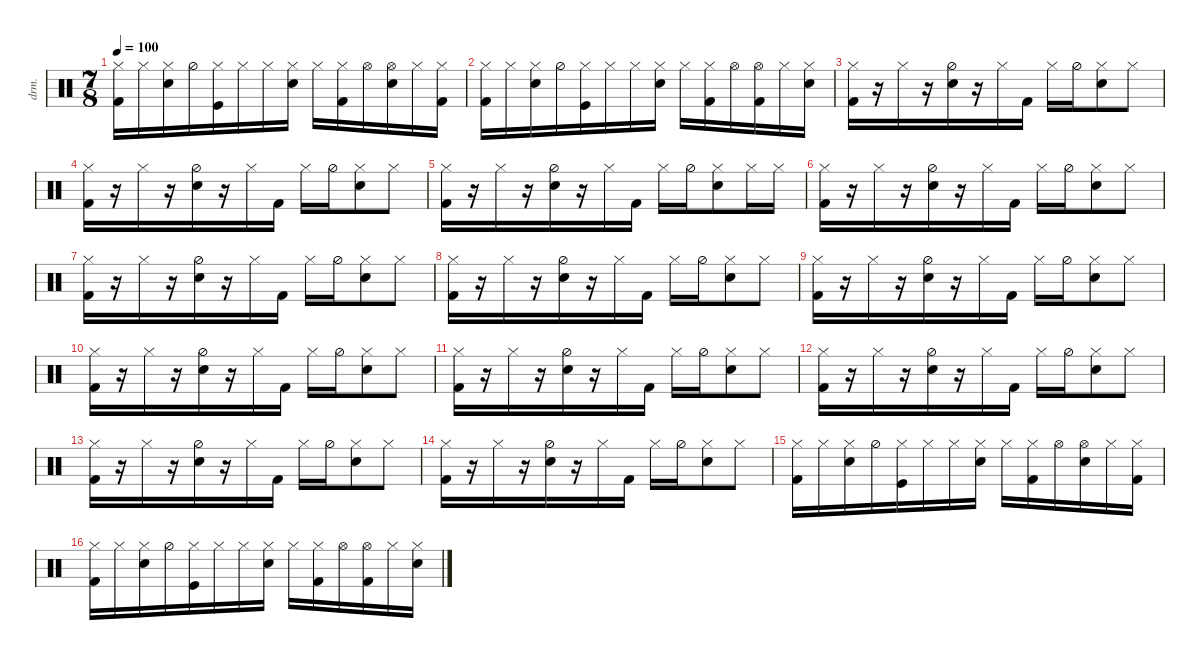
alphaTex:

\defaultSystemsLayout 4
\hideDynamics
\bracketExtendMode nobrackets
\otherSystemsTrackNameOrientation horizontal
\track ("Drumkit" "drm.") {instrument percussion}
\staff {score}
\articulation defaults
\ts (7 8)
\tempo 100
\clef neutral
\ks c
("Hi-Hat (closed)" "Kick (hit) 2").16{dy mf beam Down} "Hi-Hat (closed)".16{beam Down} ("Hi-Hat (closed)" "Snare (hit) 2").16{beam Down} "Hi-Hat (half)".16{beam Down} ("Hi-Hat (closed)" "Kick (hit)").16{beam Down} "Hi-Hat (closed)".16{beam Down} "Hi-Hat (closed)".16{beam Down} ("Hi-Hat (closed)" "Snare (hit) 2").16{beam Down} "Hi-Hat (closed)".16{beam Down} ("Hi-Hat (closed)" "Kick (hit) 2").16{beam Down} "Hi-Hat (open)".16{beam Down} ("Hi-Hat (open)" "Snare (hit) 2").16{beam Down} "Hi-Hat (closed)".16{beam Down} ("Hi-Hat (closed)" "Kick (hit) 2").16{beam Down} |
("Hi-Hat (closed)" "Kick (hit) 2").16{beam Down} "Hi-Hat (closed)".16{beam Down} ("Hi-Hat (closed)" "Snare (hit) 2").16{beam Down} "Hi-Hat (half)".16{beam Down} ("Hi-Hat (closed)" "Kick (hit)").16{beam Down} "Hi-Hat (closed)".16{beam Down} "Hi-Hat (closed)".16{beam Down} ("Hi-Hat (closed)" "Snare (hit) 2").16{beam Down} "Hi-Hat (closed)".16{beam Down} ("Hi-Hat (closed)" "Kick (hit) 2").16{beam Down} "Hi-Hat (open)".16{beam Down} ("Hi-Hat (open)" "Kick (hit) 2").16{beam Down} "Hi-Hat (closed)".16{beam Down} ("Hi-Hat (closed)" "Snare (hit) 2").16{beam Down} |
("Hi-Hat (closed)" "Kick (hit) 2").16{beam Down} r.16{beam Down} "Hi-Hat (closed)".16{beam Down} r.16{beam Down} ("Hi-Hat (half)" "Snare (hit) 2").16{beam Down} r.16{beam Down} "Hi-Hat (closed)".16{beam Down} "Kick (hit) 2".16{beam Down} "Hi-Hat (closed)".16{beam Down} "Hi-Hat (half)".16{beam Down} ("Snare (hit) 2" "Hi-Hat (closed)").8{beam Down} "Hi-Hat (closed)".8{beam Down} |
("Hi-Hat (closed)" "Kick (hit) 2").16{beam Down} r.16{beam Down} "Hi-Hat (closed)".16{beam Down} r.16{beam Down} ("Hi-Hat (half)" "Snare (hit) 2").16{beam Down} r.16{beam Down} "Hi-Hat (closed)".16{beam Down} "Kick (hit) 2".16{beam Down} "Hi-Hat (closed)".16{beam Down} "Hi-Hat (half)".16{beam Down} ("Snare (hit) 2" "Hi-Hat (closed)").8{beam Down} "Hi-Hat (closed)".8{beam Down} |
("Hi-Hat (closed)" "Kick (hit) 2").16{beam Down} r.16{beam Down} "Hi-Hat (closed)".16{beam Down} r.16{beam Down} ("Hi-Hat (half)" "Snare (hit) 2").16{beam Down} r.16{beam Down} "Hi-Hat (closed)".16{beam Down} "Kick (hit) 2".16{beam Down} "Hi-Hat (closed)".16{beam Down} "Hi-Hat (half)".16{beam Down} ("Snare (hit) 2" "Hi-Hat (closed)").8{beam Down} "Hi-Hat (closed)".16{beam Down} "Hi-Hat (closed)".16{beam Down} |
("Hi-Hat (closed)" "Kick (hit) 2").16{beam Down} r.16{beam Down} "Hi-Hat (closed)".16{beam Down} r.16{beam Down} ("Hi-Hat (half)" "Snare (hit) 2").16{beam Down} r.16{beam Down} "Hi-Hat (closed)".16{beam Down} "Kick (hit) 2".16{beam Down} "Hi-Hat (closed)".16{beam Down} "Hi-Hat (half)".16{beam Down} ("Snare (hit) 2" "Hi-Hat (closed)").8{beam Down} "Hi-Hat (closed)".8{beam Down} |
("Hi-Hat (closed)" "Kick (hit) 2").16{beam Down} r.16{beam Down} "Hi-Hat (closed)".16{beam Down} r.16{beam Down} ("Hi-Hat (half)" "Snare (hit) 2").16{beam Down} r.16{beam Down} "Hi-Hat (closed)".16{beam Down} "Kick (hit) 2".16{beam Down} "Hi-Hat (closed)".16{beam Down} "Hi-Hat (half)".16{beam Down} ("Snare (hit) 2" "Hi-Hat (closed)").8{beam Down} "Hi-Hat (closed)".8{beam Down} |
("Hi-Hat (closed)" "Kick (hit) 2").16{beam Down} r.16{beam Down} "Hi-Hat (closed)".16{beam Down} r.16{beam Down} ("Hi-Hat (half)" "Snare (hit) 2").16{beam Down} r.16{beam Down} "Hi-Hat (closed)".16{beam Down} "Kick (hit) 2".16{beam Down} "Hi-Hat (closed)".16{beam Down} "Hi-Hat (half)".16{beam Down} ("Snare (hit) 2" "Hi-Hat (closed)").8{beam Down} "Hi-Hat (closed)".8{beam Down} |
("Hi-Hat (closed)" "Kick (hit) 2").16{beam Down} r.16{beam Down} "Hi-Hat (closed)".16{beam Down} r.16{beam Down} ("Hi-Hat (half)" "Snare (hit) 2").16{beam Down} r.16{beam Down} "Hi-Hat (closed)".16{beam Down} "Kick (hit) 2".16{beam Down} "Hi-Hat (closed)".16{beam Down} "Hi-Hat (half)".16{beam Down} ("Snare (hit) 2" "Hi-Hat (closed)").8{beam Down} "Hi-Hat (closed)".8{beam Down} |
("Hi-Hat (closed)" "Kick (hit) 2").16{beam Down} r.16{beam Down} "Hi-Hat (closed)".16{beam Down} r.16{beam Down} ("Hi-Hat (half)" "Snare (hit) 2").16{beam Down} r.16{beam Down} "Hi-Hat (closed)".16{beam Down} "Kick (hit) 2".16{beam Down} "Hi-Hat (closed)".16{beam Down} "Hi-Hat (half)".16{beam Down} ("Snare (hit) 2" "Hi-Hat (closed)").8{beam Down} "Hi-Hat (closed)".8{beam Down} |
("Hi-Hat (closed)" "Kick (hit) 2").16{beam Down} r.16{beam Down} "Hi-Hat (closed)".16{beam Down} r.16{beam Down} ("Hi-Hat (half)" "Snare (hit) 2").16{beam Down} r.16{beam Down} "Hi-Hat (closed)".16{beam Down} "Kick (hit) 2".16{beam Down} "Hi-Hat (closed)".16{beam Down} "Hi-Hat (half)".16{beam Down} ("Snare (hit) 2" "Hi-Hat (closed)").8{beam Down} "Hi-Hat (closed)".8{beam Down} |
("Hi-Hat (closed)" "Kick (hit) 2").16{beam Down} r.16{beam Down} "Hi-Hat (closed)".16{beam Down} r.16{beam Down} ("Hi-Hat (half)" "Snare (hit) 2").16{beam Down} r.16{beam Down} "Hi-Hat (closed)".16{beam Down} "Kick (hit) 2".16{beam Down} "Hi-Hat (closed)".16{beam Down} "Hi-Hat (half)".16{beam Down} ("Snare (hit) 2" "Hi-Hat (closed)").8{beam Down} "Hi-Hat (closed)".8{beam Down} |
("Hi-Hat (closed)" "Kick (hit) 2").16{beam Down} r.16{beam Down} "Hi-Hat (closed)".16{beam Down} r.16{beam Down} ("Hi-Hat (half)" "Snare (hit) 2").16{beam Down} r.16{beam Down} "Hi-Hat (closed)".16{beam Down} "Kick (hit) 2".16{beam Down} "Hi-Hat (closed)".16{beam Down} "Hi-Hat (half)".16{beam Down} ("Snare (hit) 2" "Hi-Hat (closed)").8{beam Down} "Hi-Hat (closed)".8{beam Down} |
("Hi-Hat (closed)" "Kick (hit) 2").16{beam Down} r.16{beam Down} "Hi-Hat (closed)".16{beam Down} r.16{beam Down} ("Hi-Hat (half)" "Snare (hit) 2").16{beam Down} r.16{beam Down} "Hi-Hat (closed)".16{beam Down} "Kick (hit) 2".16{beam Down} "Hi-Hat (closed)".16{beam Down} "Hi-Hat (half)".16{beam Down} ("Snare (hit) 2" "Hi-Hat (closed)").8{beam Down} "Hi-Hat (closed)".8{beam Down} |
("Hi-Hat (closed)" "Kick (hit) 2").16{beam Down} "Hi-Hat (closed)".16{beam Down} ("Hi-Hat (closed)" "Snare (hit) 2").16{beam Down} "Hi-Hat (half)".16{beam Down} ("Hi-Hat (closed)" "Kick (hit)").16{beam Down} "Hi-Hat (closed)".16{beam Down} "Hi-Hat (closed)".16{beam Down} ("Hi-Hat (closed)" "Snare (hit) 2").16{beam Down} "Hi-Hat (closed)".16{beam Down} ("Hi-Hat (closed)" "Kick (hit) 2").16{beam Down} "Hi-Hat (open)".16{beam Down} ("Hi-Hat (open)" "Snare (hit) 2").16{beam Down} "Hi-Hat (closed)".16{beam Down} ("Hi-Hat (closed)" "Kick (hit) 2").16{beam Down} |
("Hi-Hat (closed)" "Kick (hit) 2").16{beam Down} "Hi-Hat (closed)".16{beam Down} ("Hi-Hat (closed)" "Snare (hit) 2").16{beam Down} "Hi-Hat (half)".16{beam Down} ("Hi-Hat (closed)" "Kick (hit)").16{beam Down} "Hi-Hat (closed)".16{beam Down} "Hi-Hat (closed)".16{beam Down} ("Hi-Hat (closed)" "Snare (hit) 2").16{beam Down} "Hi-Hat (closed)".16{beam Down} ("Hi-Hat (closed)" "Kick (hit) 2").16{beam Down} "Hi-Hat (open)".16{beam Down} ("Hi-Hat (open)" "Kick (hit) 2").16{beam Down} "Hi-Hat (closed)".16{beam Down} ("Hi-Hat (closed)" "Snare (hit) 2").16{beam Down}
